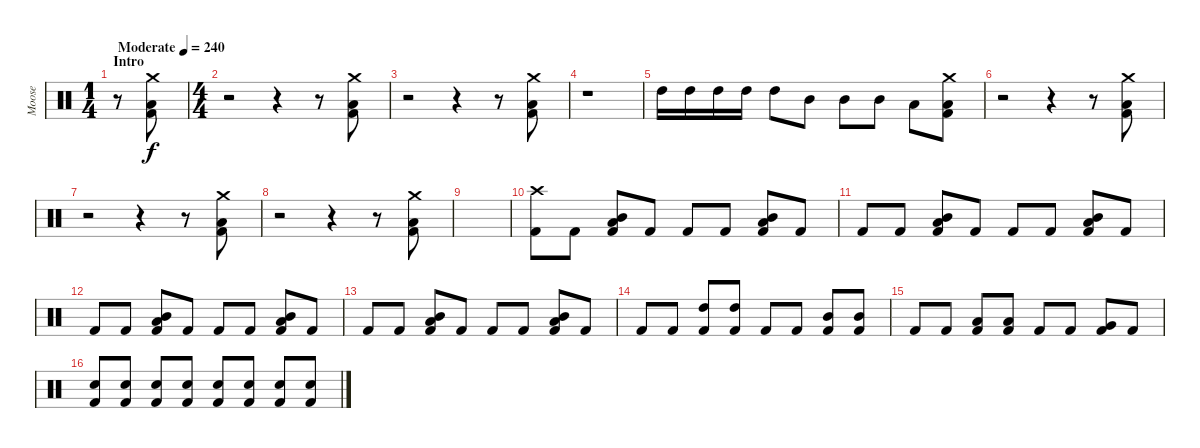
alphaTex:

\track ("Moose" "Moose") {instrument percussion}
\staff {score}
\articulation defaults
\ts (1 4)
\section ("" "Intro")
\tempo (240 "Moderate")
\clef neutral
\ks c
r.8{dy f} ("Crash medium (hit)" "Low Floor Tom (hit)" "Kick (hit) 2").8 |
\ts (4 4)
r.2 r.4 r.8 ("Crash medium (hit)" "Low Floor Tom (hit)" "Kick (hit) 2").8 |
r.2 r.4 r.8 ("Crash medium (hit)" "Low Floor Tom (hit)" "Kick (hit) 2").8 |
r.1 |
"High Tom (hit)".16 "High Tom (hit)".16 "High Tom (hit)".16 "High Tom (hit)".16 "High Tom (hit)".8 "Mid Tom (hit)".8 "Mid Tom (hit)".8 "Mid Tom (hit)".8 "Low Tom (hit)".8 ("Crash medium (hit)" "Low Floor Tom (hit)" "Kick (hit) 2").8 |
r.2 r.4 r.8 ("Crash medium (hit)" "Low Floor Tom (hit)" "Kick (hit) 2").8 |
r.2 r.4 r.8 ("Crash medium (hit)" "Low Floor Tom (hit)" "Kick (hit) 2").8 |
r.2 r.4 r.8 ("Crash medium (hit)" "Low Floor Tom (hit)" "Kick (hit) 2").8 |
|
("Crash high (hit)" "Kick (hit) 2").8 "Kick (hit) 2".8 ("Mid Tom (hit)" "Low Tom (hit)" "Kick (hit) 2").8 "Kick (hit) 2".8 "Kick (hit) 2".8 "Kick (hit) 2".8 ("Mid Tom (hit)" "Low Tom (hit)" "Kick (hit) 2").8 "Kick (hit) 2".8 |
"Kick (hit) 2".8 "Kick (hit) 2".8 ("Mid Tom (hit)" "Low Tom (hit)" "Kick (hit) 2").8 "Kick (hit) 2".8 "Kick (hit) 2".8 "Kick (hit) 2".8 ("Mid Tom (hit)" "Low Tom (hit)" "Kick (hit) 2").8 "Kick (hit) 2".8 |
"Kick (hit) 2".8 "Kick (hit) 2".8 ("Mid Tom (hit)" "Low Tom (hit)" "Kick (hit) 2").8 "Kick (hit) 2".8 "Kick (hit) 2".8 "Kick (hit) 2".8 ("Mid Tom (hit)" "Low Tom (hit)" "Kick (hit) 2").8 "Kick (hit) 2".8 |
"Kick (hit) 2".8 "Kick (hit) 2".8 ("Mid Tom (hit)" "Low Tom (hit)" "Kick (hit) 2").8 "Kick (hit) 2".8 "Kick (hit) 2".8 "Kick (hit) 2".8 ("Mid Tom (hit)" "Low Tom (hit)" "Kick (hit) 2").8 "Kick (hit) 2".8 |
"Kick (hit) 2".8 "Kick (hit) 2".8 ("High Tom (hit)" "Kick (hit) 2").8 ("High Tom (hit)" "Kick (hit) 2").8 "Kick (hit) 2".8 "Kick (hit) 2".8 ("Mid Tom (hit)" "Kick (hit) 2").8 ("Mid Tom (hit)" "Kick (hit) 2").8 |
"Kick (hit) 2".8 "Kick (hit) 2".8 ("Low Tom (hit)" "Kick (hit) 2").8 ("Low Tom (hit)" "Kick (hit) 2").8 "Kick (hit) 2".8 "Kick (hit) 2".8 ("Very Low Tom (hit)" "Kick (hit) 2").8 "Kick (hit) 2".8 |
("Snare (hit) 2" "Kick (hit) 2").8 ("Snare (hit) 2" "Kick (hit) 2").8 ("Snare (hit) 2" "Kick (hit) 2").8 ("Snare (hit) 2" "Kick (hit) 2").8 ("Snare (hit) 2" "Kick (hit) 2").8 ("Snare (hit) 2" "Kick (hit) 2").8 ("Snare (hit) 2" "Kick (hit) 2").8 ("Snare (hit) 2" "Kick (hit) 2").8
